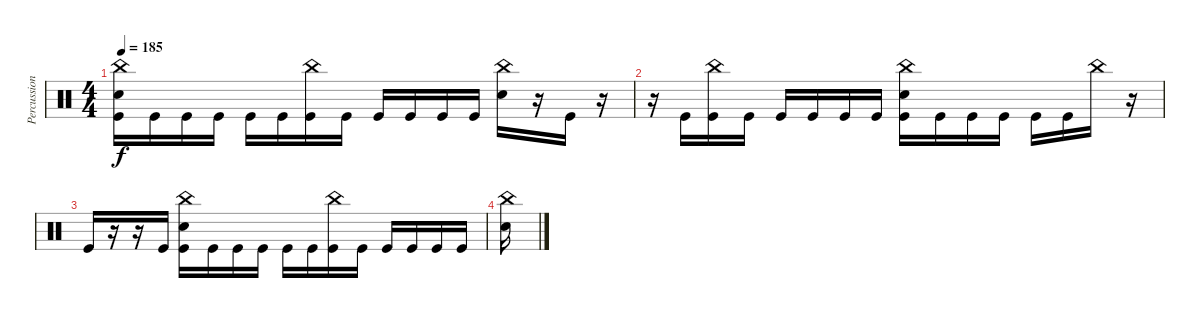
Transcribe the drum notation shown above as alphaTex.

\track ("Percussion" "Percussion") {instrument percussion}
\staff {score}
\articulation defaults
\ts (4 4)
\tempo 185
\clef neutral
\ks c
("China (hit)" "Snare (hit) 2" "Kick (hit)").16{dy f} "Kick (hit)".16 "Kick (hit)".16 "Kick (hit)".16 "Kick (hit)".16 "Kick (hit)".16 ("China (hit)" "Kick (hit)").16 "Kick (hit)".16 "Kick (hit)".16 "Kick (hit)".16 "Kick (hit)".16 "Kick (hit)".16 ("China (hit)" "Snare (hit) 2").16 r.16 "Kick (hit)".16 r.16 |
r.16 "Kick (hit)".16 ("China (hit)" "Kick (hit)").16 "Kick (hit)".16 "Kick (hit)".16 "Kick (hit)".16 "Kick (hit)".16 "Kick (hit)".16 ("China (hit)" "Snare (hit) 2" "Kick (hit)").16 "Kick (hit)".16 "Kick (hit)".16 "Kick (hit)".16 "Kick (hit)".16 "Kick (hit)".16 "China (hit)".16 r.16 |
"Kick (hit)".16 r.16 r.16 "Kick (hit)".16 ("China (hit)" "Snare (hit) 2" "Kick (hit)").16 "Kick (hit)".16 "Kick (hit)".16 "Kick (hit)".16 "Kick (hit)".16 "Kick (hit)".16 ("China (hit)" "Kick (hit)").16 "Kick (hit)".16 "Kick (hit)".16 "Kick (hit)".16 "Kick (hit)".16 "Kick (hit)".16 |
("China (hit)" "Snare (hit) 2").16
